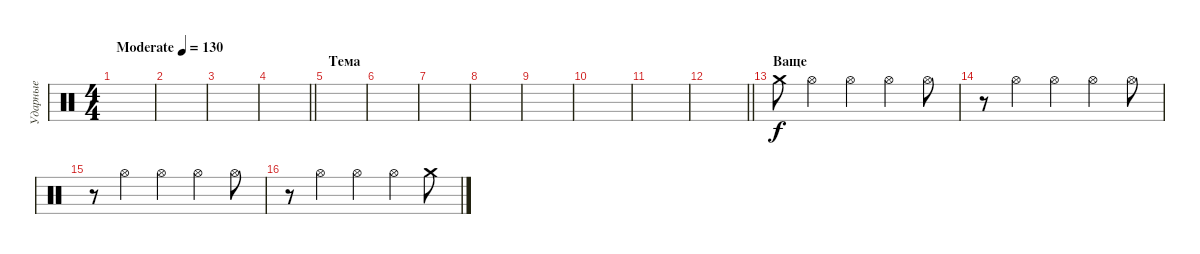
\track ("Ударные" "Ударные") {instrument percussion}
\staff {score}
\articulation defaults
\ts (4 4)
\tempo (130 "Moderate")
\clef neutral
\ks c
|
|
|
\barLineRight lightlight
|
\section ("" "Тема")
|
|
|
|
|
|
|
\barLineRight lightlight
|
\section ("" "Ваще")
"Crash medium (hit)".8 "Hi-Hat (open)".4 "Hi-Hat (open)".4 "Hi-Hat (open)".4 "Hi-Hat (open)".8 |
r.8 "Hi-Hat (open)".4 "Hi-Hat (open)".4 "Hi-Hat (open)".4 "Hi-Hat (open)".8 |
r.8 "Hi-Hat (open)".4 "Hi-Hat (open)".4 "Hi-Hat (open)".4 "Hi-Hat (open)".8 |
r.8 "Hi-Hat (open)".4 "Hi-Hat (open)".4 "Hi-Hat (open)".4 "Crash medium (hit)".8
